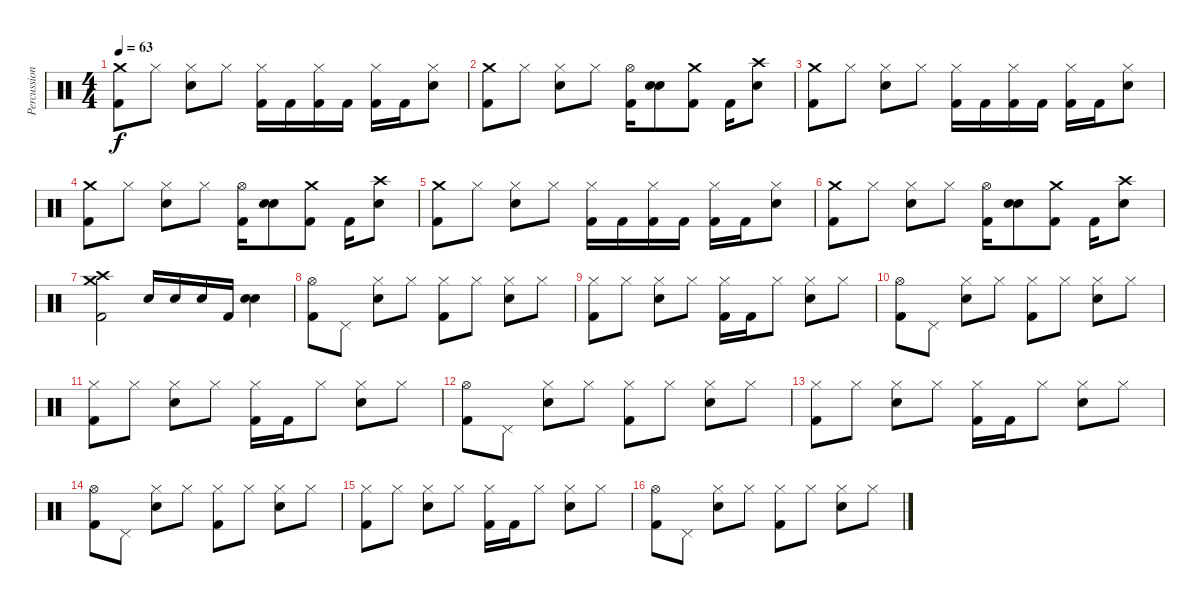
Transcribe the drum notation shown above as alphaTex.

\track ("Percussion" "Percussion") {instrument percussion}
\staff {score}
\articulation defaults
\ts (4 4)
\tempo 63
\clef neutral
\ks c
("Crash medium (hit)" "Kick (hit) 2").8{dy f} "Hi-Hat (closed)".8 ("Hi-Hat (closed)" "Snare (hit) 2").8 "Hi-Hat (closed)".8 ("Hi-Hat (closed)" "Kick (hit) 2").16 "Kick (hit) 2".16 ("Hi-Hat (closed)" "Kick (hit) 2").16 "Kick (hit) 2".16 ("Hi-Hat (closed)" "Kick (hit) 2").16 "Kick (hit) 2".16 ("Hi-Hat (closed)" "Snare (hit) 2").8 |
("Crash medium (hit)" "Kick (hit) 2").8 "Hi-Hat (closed)".8 ("Hi-Hat (closed)" "Snare (hit) 2").8 "Hi-Hat (closed)".8 ("Hi-Hat (open)" "Kick (hit) 2").16 ("Snare (hit) 2" "Snare (hit) 2").8{bd 120} ("Crash medium (hit)" "Kick (hit) 2").8 "Kick (hit) 2".16 ("Crash high (hit)" "Snare (hit) 2").8 |
("Crash medium (hit)" "Kick (hit) 2").8 "Hi-Hat (closed)".8 ("Hi-Hat (closed)" "Snare (hit) 2").8 "Hi-Hat (closed)".8 ("Hi-Hat (closed)" "Kick (hit) 2").16 "Kick (hit) 2".16 ("Hi-Hat (closed)" "Kick (hit) 2").16 "Kick (hit) 2".16 ("Hi-Hat (closed)" "Kick (hit) 2").16 "Kick (hit) 2".16 ("Hi-Hat (closed)" "Snare (hit) 2").8 |
("Crash medium (hit)" "Kick (hit) 2").8 "Hi-Hat (closed)".8 ("Hi-Hat (closed)" "Snare (hit) 2").8 "Hi-Hat (closed)".8 ("Hi-Hat (open)" "Kick (hit) 2").16 ("Snare (hit) 2" "Snare (hit) 2").8{bd 120} ("Crash medium (hit)" "Kick (hit) 2").8 "Kick (hit) 2".16 ("Crash high (hit)" "Snare (hit) 2").8 |
("Crash medium (hit)" "Kick (hit) 2").8 "Hi-Hat (closed)".8 ("Hi-Hat (closed)" "Snare (hit) 2").8 "Hi-Hat (closed)".8 ("Hi-Hat (closed)" "Kick (hit) 2").16 "Kick (hit) 2".16 ("Hi-Hat (closed)" "Kick (hit) 2").16 "Kick (hit) 2".16 ("Hi-Hat (closed)" "Kick (hit) 2").16 "Kick (hit) 2".16 ("Hi-Hat (closed)" "Snare (hit) 2").8 |
("Crash medium (hit)" "Kick (hit) 2").8 "Hi-Hat (closed)".8 ("Hi-Hat (closed)" "Snare (hit) 2").8 "Hi-Hat (closed)".8 ("Hi-Hat (open)" "Kick (hit) 2").16 ("Snare (hit) 2" "Snare (hit) 2").8{bd 120} ("Crash medium (hit)" "Kick (hit) 2").8 "Kick (hit) 2".16 ("Crash high (hit)" "Snare (hit) 2").8 |
("Crash medium (hit)" "Crash high (hit)" "Kick (hit) 2").2 "Snare (hit) 2".16 "Snare (hit) 2".16 "Snare (hit) 2".16 "Kick (hit) 2".16 ("Snare (hit) 2" "Snare (hit) 2").4{bd 120} |
("Hi-Hat (open)" "Kick (hit) 2").8 "Pedal Hi-Hat (hit)".8 ("Hi-Hat (closed)" "Snare (hit) 2").8 "Hi-Hat (closed)".8 ("Hi-Hat (closed)" "Kick (hit) 2").8 "Hi-Hat (closed)".8 ("Hi-Hat (closed)" "Snare (hit) 2").8 "Hi-Hat (closed)".8 |
("Hi-Hat (closed)" "Kick (hit) 2").8 "Hi-Hat (closed)".8 ("Hi-Hat (closed)" "Snare (hit) 2").8 "Hi-Hat (closed)".8 ("Hi-Hat (closed)" "Kick (hit) 2").16 "Kick (hit) 2".16 "Hi-Hat (closed)".8 ("Hi-Hat (closed)" "Snare (hit) 2").8 "Hi-Hat (closed)".8 |
("Hi-Hat (open)" "Kick (hit) 2").8 "Pedal Hi-Hat (hit)".8 ("Hi-Hat (closed)" "Snare (hit) 2").8 "Hi-Hat (closed)".8 ("Hi-Hat (closed)" "Kick (hit) 2").8 "Hi-Hat (closed)".8 ("Hi-Hat (closed)" "Snare (hit) 2").8 "Hi-Hat (closed)".8 |
("Hi-Hat (closed)" "Kick (hit) 2").8 "Hi-Hat (closed)".8 ("Hi-Hat (closed)" "Snare (hit) 2").8 "Hi-Hat (closed)".8 ("Hi-Hat (closed)" "Kick (hit) 2").16 "Kick (hit) 2".16 "Hi-Hat (closed)".8 ("Hi-Hat (closed)" "Snare (hit) 2").8 "Hi-Hat (closed)".8 |
("Hi-Hat (open)" "Kick (hit) 2").8 "Pedal Hi-Hat (hit)".8 ("Hi-Hat (closed)" "Snare (hit) 2").8 "Hi-Hat (closed)".8 ("Hi-Hat (closed)" "Kick (hit) 2").8 "Hi-Hat (closed)".8 ("Hi-Hat (closed)" "Snare (hit) 2").8 "Hi-Hat (closed)".8 |
("Hi-Hat (closed)" "Kick (hit) 2").8 "Hi-Hat (closed)".8 ("Hi-Hat (closed)" "Snare (hit) 2").8 "Hi-Hat (closed)".8 ("Hi-Hat (closed)" "Kick (hit) 2").16 "Kick (hit) 2".16 "Hi-Hat (closed)".8 ("Hi-Hat (closed)" "Snare (hit) 2").8 "Hi-Hat (closed)".8 |
("Hi-Hat (open)" "Kick (hit) 2").8 "Pedal Hi-Hat (hit)".8 ("Hi-Hat (closed)" "Snare (hit) 2").8 "Hi-Hat (closed)".8 ("Hi-Hat (closed)" "Kick (hit) 2").8 "Hi-Hat (closed)".8 ("Hi-Hat (closed)" "Snare (hit) 2").8 "Hi-Hat (closed)".8 |
("Hi-Hat (closed)" "Kick (hit) 2").8 "Hi-Hat (closed)".8 ("Hi-Hat (closed)" "Snare (hit) 2").8 "Hi-Hat (closed)".8 ("Hi-Hat (closed)" "Kick (hit) 2").16 "Kick (hit) 2".16 "Hi-Hat (closed)".8 ("Hi-Hat (closed)" "Snare (hit) 2").8 "Hi-Hat (closed)".8 |
("Hi-Hat (open)" "Kick (hit) 2").8 "Pedal Hi-Hat (hit)".8 ("Hi-Hat (closed)" "Snare (hit) 2").8 "Hi-Hat (closed)".8 ("Hi-Hat (closed)" "Kick (hit) 2").8 "Hi-Hat (closed)".8 ("Hi-Hat (closed)" "Snare (hit) 2").8 "Hi-Hat (closed)".8
